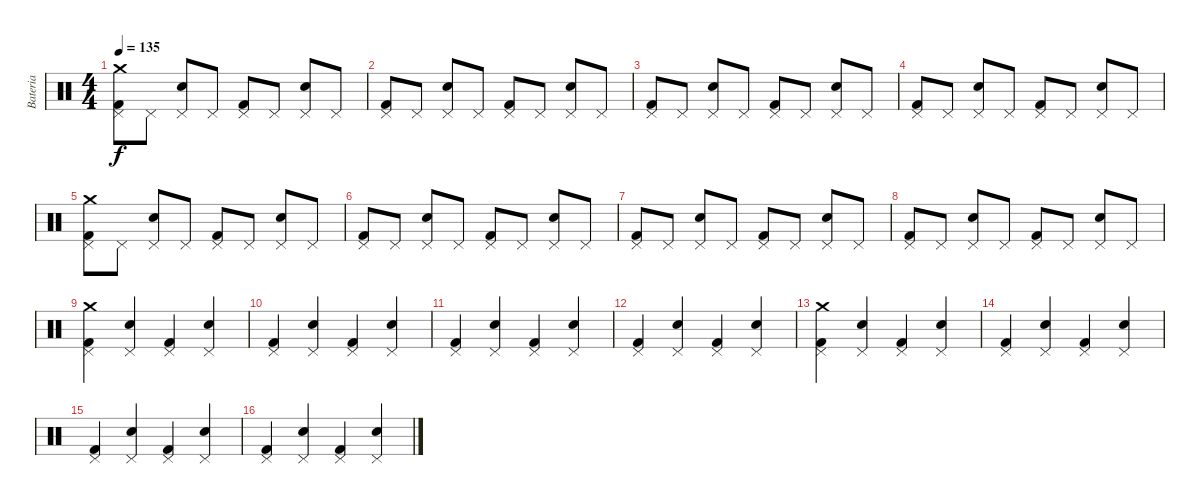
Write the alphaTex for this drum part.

\track ("Bateria" "Bateria") {instrument percussion}
\staff {score}
\articulation defaults
\ts (4 4)
\tempo 135
\clef neutral
\ks c
("Kick (hit) 2" "Pedal Hi-Hat (hit)" "Crash medium (hit)").8{dy f} "Pedal Hi-Hat (hit)".8 ("Electric Snare (hit)" "Pedal Hi-Hat (hit)").8 "Pedal Hi-Hat (hit)".8 ("Kick (hit) 2" "Pedal Hi-Hat (hit)").8 "Pedal Hi-Hat (hit)".8 ("Electric Snare (hit)" "Pedal Hi-Hat (hit)").8 "Pedal Hi-Hat (hit)".8 |
("Kick (hit) 2" "Pedal Hi-Hat (hit)").8 "Pedal Hi-Hat (hit)".8 ("Electric Snare (hit)" "Pedal Hi-Hat (hit)").8 "Pedal Hi-Hat (hit)".8 ("Kick (hit) 2" "Pedal Hi-Hat (hit)").8 "Pedal Hi-Hat (hit)".8 ("Electric Snare (hit)" "Pedal Hi-Hat (hit)").8 "Pedal Hi-Hat (hit)".8 |
("Kick (hit) 2" "Pedal Hi-Hat (hit)").8 "Pedal Hi-Hat (hit)".8 ("Electric Snare (hit)" "Pedal Hi-Hat (hit)").8 "Pedal Hi-Hat (hit)".8 ("Kick (hit) 2" "Pedal Hi-Hat (hit)").8 "Pedal Hi-Hat (hit)".8 ("Electric Snare (hit)" "Pedal Hi-Hat (hit)").8 "Pedal Hi-Hat (hit)".8 |
("Kick (hit) 2" "Pedal Hi-Hat (hit)").8 "Pedal Hi-Hat (hit)".8 ("Electric Snare (hit)" "Pedal Hi-Hat (hit)").8 "Pedal Hi-Hat (hit)".8 ("Kick (hit) 2" "Pedal Hi-Hat (hit)").8 "Pedal Hi-Hat (hit)".8 ("Electric Snare (hit)" "Pedal Hi-Hat (hit)").8 "Pedal Hi-Hat (hit)".8 |
("Kick (hit) 2" "Pedal Hi-Hat (hit)" "Crash medium (hit)").8 "Pedal Hi-Hat (hit)".8 ("Electric Snare (hit)" "Pedal Hi-Hat (hit)").8 "Pedal Hi-Hat (hit)".8 ("Kick (hit) 2" "Pedal Hi-Hat (hit)").8 "Pedal Hi-Hat (hit)".8 ("Electric Snare (hit)" "Pedal Hi-Hat (hit)").8 "Pedal Hi-Hat (hit)".8 |
("Kick (hit) 2" "Pedal Hi-Hat (hit)").8 "Pedal Hi-Hat (hit)".8 ("Electric Snare (hit)" "Pedal Hi-Hat (hit)").8 "Pedal Hi-Hat (hit)".8 ("Kick (hit) 2" "Pedal Hi-Hat (hit)").8 "Pedal Hi-Hat (hit)".8 ("Electric Snare (hit)" "Pedal Hi-Hat (hit)").8 "Pedal Hi-Hat (hit)".8 |
("Kick (hit) 2" "Pedal Hi-Hat (hit)").8 "Pedal Hi-Hat (hit)".8 ("Electric Snare (hit)" "Pedal Hi-Hat (hit)").8 "Pedal Hi-Hat (hit)".8 ("Kick (hit) 2" "Pedal Hi-Hat (hit)").8 "Pedal Hi-Hat (hit)".8 ("Electric Snare (hit)" "Pedal Hi-Hat (hit)").8 "Pedal Hi-Hat (hit)".8 |
("Kick (hit) 2" "Pedal Hi-Hat (hit)").8 "Pedal Hi-Hat (hit)".8 ("Electric Snare (hit)" "Pedal Hi-Hat (hit)").8 "Pedal Hi-Hat (hit)".8 ("Kick (hit) 2" "Pedal Hi-Hat (hit)").8 "Pedal Hi-Hat (hit)".8 ("Electric Snare (hit)" "Pedal Hi-Hat (hit)").8 "Pedal Hi-Hat (hit)".8 |
("Kick (hit) 2" "Pedal Hi-Hat (hit)" "Crash medium (hit)").4 ("Electric Snare (hit)" "Pedal Hi-Hat (hit)").4 ("Kick (hit) 2" "Pedal Hi-Hat (hit)").4 ("Electric Snare (hit)" "Pedal Hi-Hat (hit)").4 |
("Kick (hit) 2" "Pedal Hi-Hat (hit)").4 ("Electric Snare (hit)" "Pedal Hi-Hat (hit)").4 ("Kick (hit) 2" "Pedal Hi-Hat (hit)").4 ("Electric Snare (hit)" "Pedal Hi-Hat (hit)").4 |
("Kick (hit) 2" "Pedal Hi-Hat (hit)").4 ("Electric Snare (hit)" "Pedal Hi-Hat (hit)").4 ("Kick (hit) 2" "Pedal Hi-Hat (hit)").4 ("Electric Snare (hit)" "Pedal Hi-Hat (hit)").4 |
("Kick (hit) 2" "Pedal Hi-Hat (hit)").4 ("Electric Snare (hit)" "Pedal Hi-Hat (hit)").4 ("Kick (hit) 2" "Pedal Hi-Hat (hit)").4 ("Electric Snare (hit)" "Pedal Hi-Hat (hit)").4 |
("Kick (hit) 2" "Pedal Hi-Hat (hit)" "Crash medium (hit)").4 ("Electric Snare (hit)" "Pedal Hi-Hat (hit)").4 ("Kick (hit) 2" "Pedal Hi-Hat (hit)").4 ("Electric Snare (hit)" "Pedal Hi-Hat (hit)").4 |
("Kick (hit) 2" "Pedal Hi-Hat (hit)").4 ("Electric Snare (hit)" "Pedal Hi-Hat (hit)").4 ("Kick (hit) 2" "Pedal Hi-Hat (hit)").4 ("Electric Snare (hit)" "Pedal Hi-Hat (hit)").4 |
("Kick (hit) 2" "Pedal Hi-Hat (hit)").4 ("Electric Snare (hit)" "Pedal Hi-Hat (hit)").4 ("Kick (hit) 2" "Pedal Hi-Hat (hit)").4 ("Electric Snare (hit)" "Pedal Hi-Hat (hit)").4 |
("Kick (hit) 2" "Pedal Hi-Hat (hit)").4 ("Electric Snare (hit)" "Pedal Hi-Hat (hit)").4 ("Kick (hit) 2" "Pedal Hi-Hat (hit)").4 ("Electric Snare (hit)" "Pedal Hi-Hat (hit)").4
